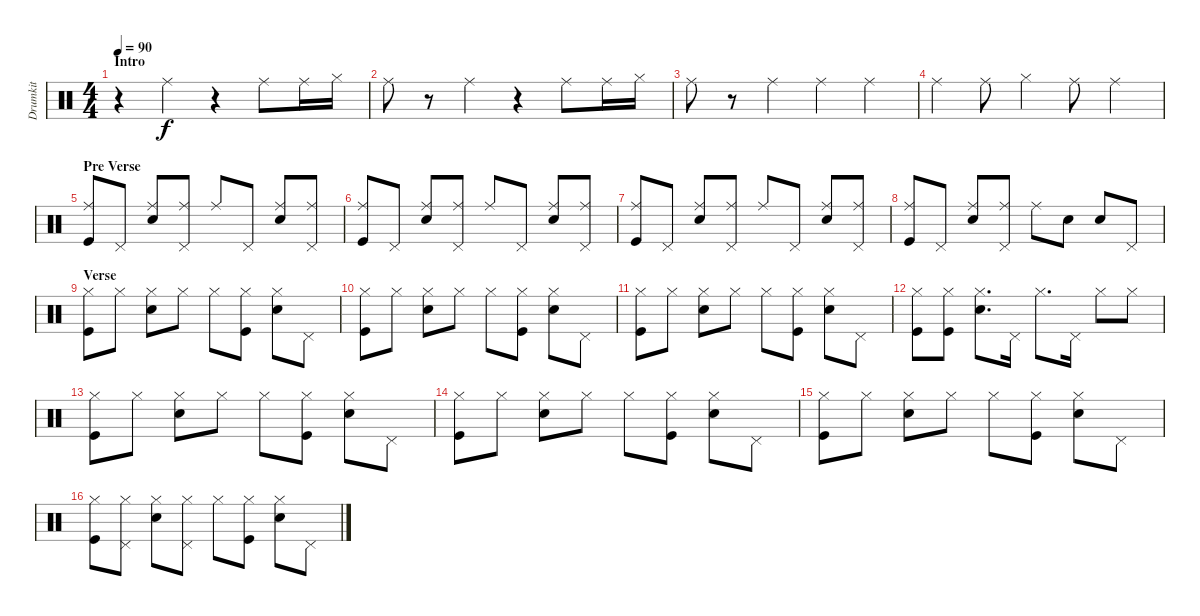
\track ("Drumkit" "Drumkit") {instrument percussion}
\staff {score}
\articulation defaults
\ts (4 4)
\section ("" "Intro")
\tempo 90
\clef neutral
\ks c
r.4{dy f} "Ride (middle)".4 r.4 "Ride (middle)".8 "Ride (middle)".16 "Hi-Hat (closed)".16 |
"Ride (middle)".8 r.8 "Ride (middle)".4 r.4 "Ride (middle)".8 "Ride (middle)".16 "Hi-Hat (closed)".16 |
"Ride (middle)".8 r.8 "Ride (middle)".4 "Ride (middle)".4 "Ride (middle)".4 |
"Ride (middle)".4 "Ride (middle)".8 "Hi-Hat (closed)".4 "Ride (middle)".8 "Ride (middle)".4 |
\section ("" "Pre Verse")
("Kick (hit)" "Ride (middle)").8 "Pedal Hi-Hat (hit)".8 ("Snare (hit) 2" "Ride (middle)").8 ("Ride (middle)" "Pedal Hi-Hat (hit)").8 "Ride (middle)".8 "Pedal Hi-Hat (hit)".8 ("Snare (hit) 2" "Ride (middle)").8 ("Ride (middle)" "Pedal Hi-Hat (hit)").8 |
("Kick (hit)" "Ride (middle)").8 "Pedal Hi-Hat (hit)".8 ("Snare (hit) 2" "Ride (middle)").8 ("Ride (middle)" "Pedal Hi-Hat (hit)").8 "Ride (middle)".8 "Pedal Hi-Hat (hit)".8 ("Snare (hit) 2" "Ride (middle)").8 ("Ride (middle)" "Pedal Hi-Hat (hit)").8 |
("Kick (hit)" "Ride (middle)").8 "Pedal Hi-Hat (hit)".8 ("Snare (hit) 2" "Ride (middle)").8 ("Ride (middle)" "Pedal Hi-Hat (hit)").8 "Ride (middle)".8 "Pedal Hi-Hat (hit)".8 ("Snare (hit) 2" "Ride (middle)").8 ("Ride (middle)" "Pedal Hi-Hat (hit)").8 |
("Kick (hit)" "Ride (middle)").8 "Pedal Hi-Hat (hit)".8 ("Snare (hit) 2" "Ride (middle)").8 ("Ride (middle)" "Pedal Hi-Hat (hit)").8 "Ride (middle)".8 "Snare (hit) 2".8 "Snare (hit) 2".8 "Pedal Hi-Hat (hit)".8 |
\section ("" "Verse")
("Kick (hit)" "Hi-Hat (closed)").8 "Hi-Hat (closed)".8 ("Snare (hit) 2" "Hi-Hat (closed)").8 "Hi-Hat (closed)".8 "Hi-Hat (closed)".8 ("Kick (hit)" "Hi-Hat (closed)").8 ("Snare (hit) 2" "Hi-Hat (closed)").8 "Pedal Hi-Hat (hit)".8 |
("Kick (hit)" "Hi-Hat (closed)").8 "Hi-Hat (closed)".8 ("Snare (hit) 2" "Hi-Hat (closed)").8 "Hi-Hat (closed)".8 "Hi-Hat (closed)".8 ("Kick (hit)" "Hi-Hat (closed)").8 ("Snare (hit) 2" "Hi-Hat (closed)").8 "Pedal Hi-Hat (hit)".8 |
("Kick (hit)" "Hi-Hat (closed)").8 "Hi-Hat (closed)".8 ("Snare (hit) 2" "Hi-Hat (closed)").8 "Hi-Hat (closed)".8 "Hi-Hat (closed)".8 ("Kick (hit)" "Hi-Hat (closed)").8 ("Snare (hit) 2" "Hi-Hat (closed)").8 "Pedal Hi-Hat (hit)".8 |
("Kick (hit)" "Hi-Hat (closed)").8 ("Kick (hit)" "Hi-Hat (closed)").8 ("Snare (hit) 2" "Hi-Hat (closed)").8{d} "Pedal Hi-Hat (hit)".16 "Hi-Hat (closed)".8{d} "Pedal Hi-Hat (hit)".16 "Hi-Hat (closed)".8 "Hi-Hat (closed)".8 |
("Kick (hit)" "Hi-Hat (closed)").8 "Hi-Hat (closed)".8 ("Snare (hit) 2" "Hi-Hat (closed)").8 "Hi-Hat (closed)".8 "Hi-Hat (closed)".8 ("Kick (hit)" "Hi-Hat (closed)").8 ("Snare (hit) 2" "Hi-Hat (closed)").8 "Pedal Hi-Hat (hit)".8 |
("Kick (hit)" "Hi-Hat (closed)").8 "Hi-Hat (closed)".8 ("Snare (hit) 2" "Hi-Hat (closed)").8 "Hi-Hat (closed)".8 "Hi-Hat (closed)".8 ("Kick (hit)" "Hi-Hat (closed)").8 ("Snare (hit) 2" "Hi-Hat (closed)").8 "Pedal Hi-Hat (hit)".8 |
("Kick (hit)" "Hi-Hat (closed)").8 "Hi-Hat (closed)".8 ("Snare (hit) 2" "Hi-Hat (closed)").8 "Hi-Hat (closed)".8 "Hi-Hat (closed)".8 ("Kick (hit)" "Hi-Hat (closed)").8 ("Snare (hit) 2" "Hi-Hat (closed)").8 "Pedal Hi-Hat (hit)".8 |
("Kick (hit)" "Hi-Hat (closed)").8 ("Pedal Hi-Hat (hit)" "Hi-Hat (closed)").8 ("Snare (hit) 2" "Hi-Hat (closed)").8 ("Pedal Hi-Hat (hit)" "Hi-Hat (closed)").8 "Hi-Hat (closed)".8 ("Kick (hit)" "Hi-Hat (closed)").8 ("Snare (hit) 2" "Hi-Hat (closed)").8 "Pedal Hi-Hat (hit)".8
